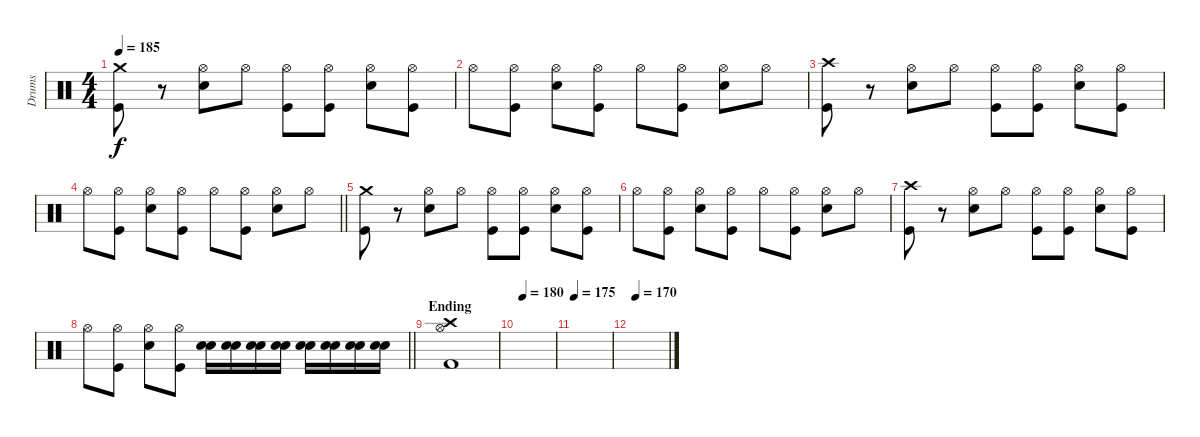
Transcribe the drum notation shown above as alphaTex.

\track ("Drums" "Drums") {instrument percussion}
\staff {score}
\articulation defaults
\ts (4 4)
\tempo 185
\clef neutral
\ks c
("Crash medium (hit)" "Kick (hit)").8{dy f} r.8 ("Hi-Hat (open)" "Electric Snare (hit)").8 "Hi-Hat (open)".8 ("Hi-Hat (open)" "Kick (hit)").8 ("Hi-Hat (open)" "Kick (hit)").8 ("Hi-Hat (open)" "Electric Snare (hit)").8 ("Hi-Hat (open)" "Kick (hit)").8 |
"Hi-Hat (open)".8 ("Hi-Hat (open)" "Kick (hit)").8 ("Hi-Hat (open)" "Electric Snare (hit)").8 ("Hi-Hat (open)" "Kick (hit)").8 "Hi-Hat (open)".8 ("Hi-Hat (open)" "Kick (hit)").8 ("Hi-Hat (open)" "Electric Snare (hit)").8 "Hi-Hat (open)".8 |
("Crash high (hit)" "Kick (hit)").8 r.8 ("Hi-Hat (open)" "Electric Snare (hit)").8 "Hi-Hat (open)".8 ("Hi-Hat (open)" "Kick (hit)").8 ("Hi-Hat (open)" "Kick (hit)").8 ("Hi-Hat (open)" "Electric Snare (hit)").8 ("Hi-Hat (open)" "Kick (hit)").8 |
\barLineRight lightlight "Hi-Hat (open)".8
("Hi-Hat (open)" "Kick (hit)").8 ("Hi-Hat (open)" "Electric Snare (hit)").8 ("Hi-Hat (open)" "Kick (hit)").8 "Hi-Hat (open)".8 ("Hi-Hat (open)" "Kick (hit)").8 ("Hi-Hat (open)" "Electric Snare (hit)").8 "Hi-Hat (open)".8 |
("Crash medium (hit)" "Kick (hit)").8 r.8 ("Hi-Hat (open)" "Electric Snare (hit)").8 "Hi-Hat (open)".8 ("Hi-Hat (open)" "Kick (hit)").8 ("Hi-Hat (open)" "Kick (hit)").8 ("Hi-Hat (open)" "Electric Snare (hit)").8 ("Hi-Hat (open)" "Kick (hit)").8 |
"Hi-Hat (open)".8 ("Hi-Hat (open)" "Kick (hit)").8 ("Hi-Hat (open)" "Electric Snare (hit)").8 ("Hi-Hat (open)" "Kick (hit)").8 "Hi-Hat (open)".8 ("Hi-Hat (open)" "Kick (hit)").8 ("Hi-Hat (open)" "Electric Snare (hit)").8 "Hi-Hat (open)".8 |
("Crash high (hit)" "Kick (hit)").8 r.8 ("Hi-Hat (open)" "Electric Snare (hit)").8 "Hi-Hat (open)".8 ("Hi-Hat (open)" "Kick (hit)").8 ("Hi-Hat (open)" "Kick (hit)").8 ("Hi-Hat (open)" "Electric Snare (hit)").8 ("Hi-Hat (open)" "Kick (hit)").8 |
\barLineRight lightlight "Hi-Hat (open)".8
("Hi-Hat (open)" "Kick (hit)").8 ("Hi-Hat (open)" "Electric Snare (hit)").8 ("Hi-Hat (open)" "Kick (hit)").8 ("Snare (hit) 2" "Electric Snare (hit)").16 ("Snare (hit) 2" "Electric Snare (hit)").16 ("Snare (hit) 2" "Electric Snare (hit)").16 ("Snare (hit) 2" "Electric Snare (hit)").16 ("Snare (hit) 2" "Electric Snare (hit)").16 ("Snare (hit) 2" "Electric Snare (hit)").16 ("Snare (hit) 2" "Electric Snare (hit)").16 ("Snare (hit) 2" "Electric Snare (hit)").16 |
\section ("" "Ending")
("Crash high (hit)" "Hi-Hat (open)" "Kick (hit) 2").1 |
\tempo (180 0.125)
|
\tempo 175
|
\tempo (170 0.125)
